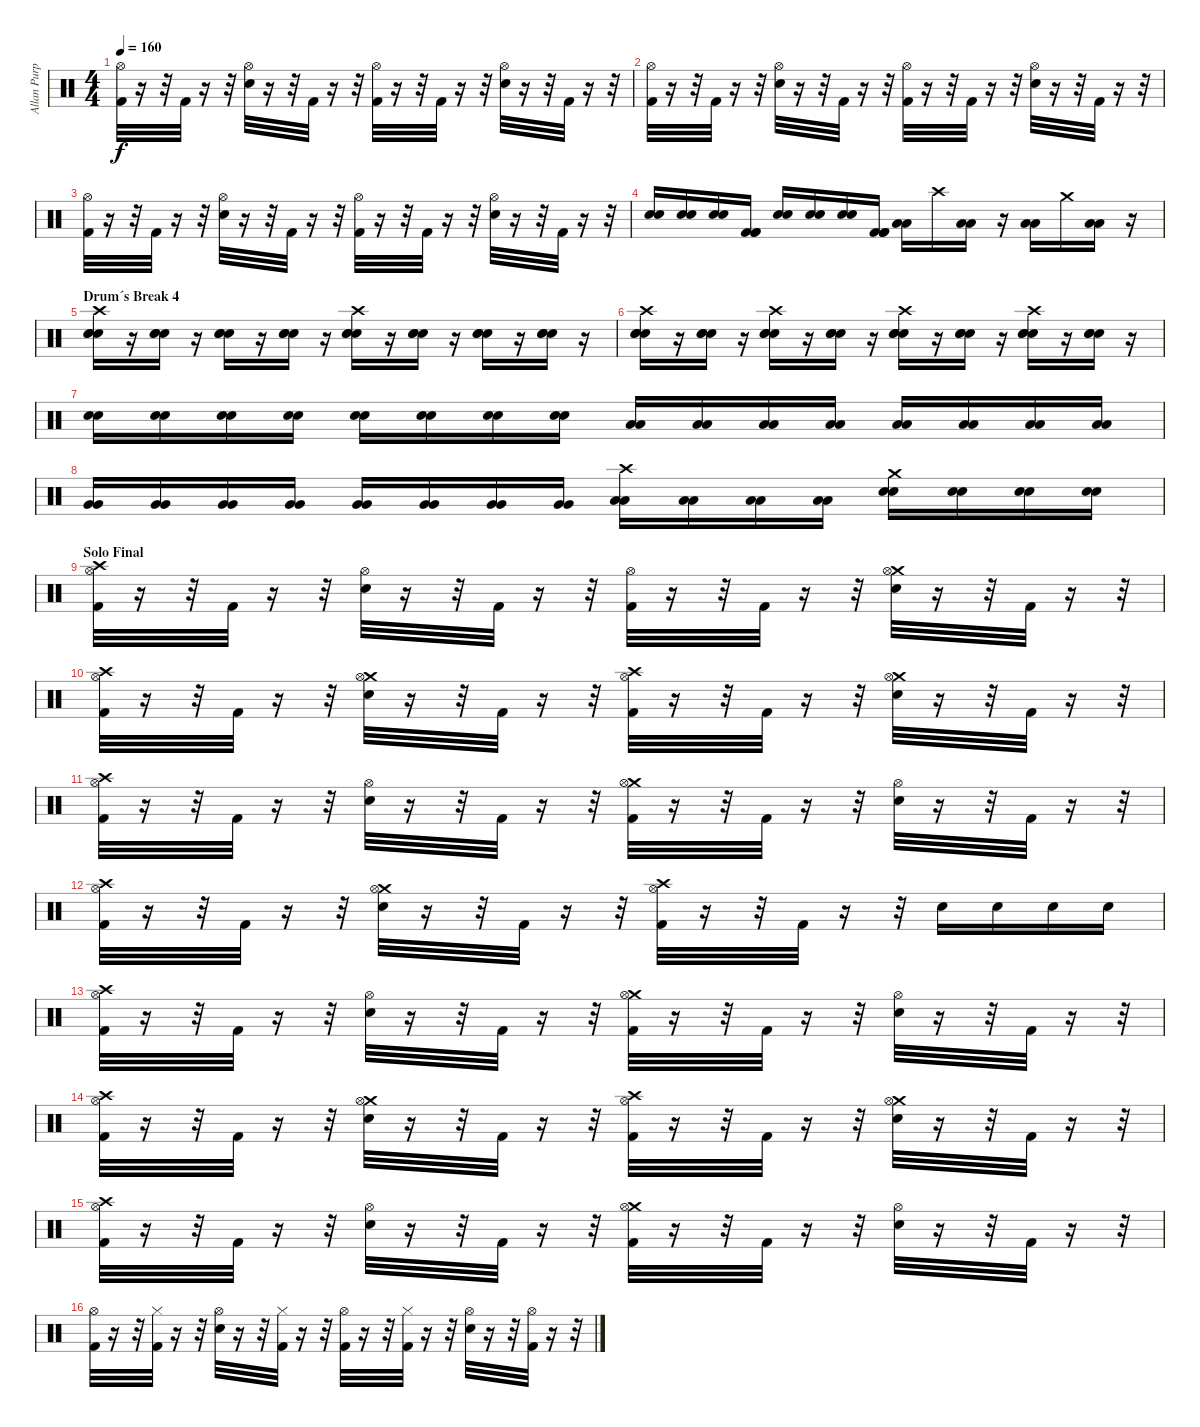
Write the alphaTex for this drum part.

\track ("Allan Purple" "Allan Purp") {instrument percussion}
\staff {score}
\articulation defaults
\ts (4 4)
\tempo 160
\clef neutral
\ks c
("Hi-Hat (open)" "Kick (hit) 2").32{dy f} r.16 r.32 "Kick (hit) 2".32 r.16 r.32 ("Hi-Hat (open)" "Electric Snare (hit)").32 r.16 r.32 "Kick (hit) 2".32 r.16 r.32 ("Hi-Hat (open)" "Kick (hit) 2").32 r.16 r.32 "Kick (hit) 2".32 r.16 r.32 ("Hi-Hat (open)" "Electric Snare (hit)").32 r.16 r.32 "Kick (hit) 2".32 r.16 r.32 |
("Hi-Hat (open)" "Kick (hit) 2").32 r.16 r.32 "Kick (hit) 2".32 r.16 r.32 ("Hi-Hat (open)" "Electric Snare (hit)").32 r.16 r.32 "Kick (hit) 2".32 r.16 r.32 ("Hi-Hat (open)" "Kick (hit) 2").32 r.16 r.32 "Kick (hit) 2".32 r.16 r.32 ("Hi-Hat (open)" "Electric Snare (hit)").32 r.16 r.32 "Kick (hit) 2".32 r.16 r.32 |
("Hi-Hat (open)" "Kick (hit) 2").32 r.16 r.32 "Kick (hit) 2".32 r.16 r.32 ("Hi-Hat (open)" "Electric Snare (hit)").32 r.16 r.32 "Kick (hit) 2".32 r.16 r.32 ("Hi-Hat (open)" "Kick (hit) 2").32 r.16 r.32 "Kick (hit) 2".32 r.16 r.32 ("Hi-Hat (open)" "Electric Snare (hit)").32 r.16 r.32 "Kick (hit) 2".32 r.16 r.32 |
("Electric Snare (hit)" "Electric Snare (hit)").16 ("Electric Snare (hit)" "Electric Snare (hit)").16 ("Electric Snare (hit)" "Electric Snare (hit)").16 ("Kick (hit) 2" "Kick (hit) 2" "Kick (hit) 2").16 ("Electric Snare (hit)" "Electric Snare (hit)").16 ("Electric Snare (hit)" "Electric Snare (hit)").16 ("Electric Snare (hit)" "Electric Snare (hit)").16 ("Kick (hit) 2" "Kick (hit) 2" "Kick (hit) 2").16 ("Low Tom (hit)" "Low Tom (hit)").16 "Crash high (hit)".16 ("Low Tom (hit)" "Low Tom (hit)").16 r.16 ("Low Tom (hit)" "Low Tom (hit)").16 "Crash medium (hit)".16 ("Low Tom (hit)" "Low Tom (hit)").16 r.16 |
\section ("" "Drum´s Break 4")
("Crash high (hit)" "Electric Snare (hit)" "Electric Snare (hit)" "Electric Snare (hit)").16 r.16 ("Electric Snare (hit)" "Electric Snare (hit)" "Electric Snare (hit)").16 r.16 ("Electric Snare (hit)" "Electric Snare (hit)" "Electric Snare (hit)").16 r.16 ("Electric Snare (hit)" "Electric Snare (hit)" "Electric Snare (hit)").16 r.16 ("Crash high (hit)" "Electric Snare (hit)" "Electric Snare (hit)" "Electric Snare (hit)").16 r.16 ("Electric Snare (hit)" "Electric Snare (hit)" "Electric Snare (hit)").16 r.16 ("Electric Snare (hit)" "Electric Snare (hit)" "Electric Snare (hit)").16 r.16 ("Electric Snare (hit)" "Electric Snare (hit)" "Electric Snare (hit)").16 r.16 |
("Crash high (hit)" "Electric Snare (hit)" "Electric Snare (hit)" "Electric Snare (hit)").16 r.16 ("Electric Snare (hit)" "Electric Snare (hit)" "Electric Snare (hit)").16 r.16 ("Crash high (hit)" "Electric Snare (hit)" "Electric Snare (hit)" "Electric Snare (hit)").16 r.16 ("Electric Snare (hit)" "Electric Snare (hit)" "Electric Snare (hit)").16 r.16 ("Crash high (hit)" "Electric Snare (hit)" "Electric Snare (hit)" "Electric Snare (hit)").16 r.16 ("Electric Snare (hit)" "Electric Snare (hit)" "Electric Snare (hit)").16 r.16 ("Crash high (hit)" "Electric Snare (hit)" "Electric Snare (hit)" "Electric Snare (hit)").16 r.16 ("Electric Snare (hit)" "Electric Snare (hit)" "Electric Snare (hit)").16 r.16 |
("Electric Snare (hit)" "Electric Snare (hit)").16 ("Electric Snare (hit)" "Electric Snare (hit)").16 ("Electric Snare (hit)" "Electric Snare (hit)").16 ("Electric Snare (hit)" "Electric Snare (hit)").16 ("Electric Snare (hit)" "Electric Snare (hit)").16 ("Electric Snare (hit)" "Electric Snare (hit)").16 ("Electric Snare (hit)" "Electric Snare (hit)").16 ("Electric Snare (hit)" "Electric Snare (hit)").16 ("Low Tom (hit)" "Low Tom (hit)").16 ("Low Tom (hit)" "Low Tom (hit)").16 ("Low Tom (hit)" "Low Tom (hit)").16 ("Low Tom (hit)" "Low Tom (hit)").16 ("Low Tom (hit)" "Low Tom (hit)").16 ("Low Tom (hit)" "Low Tom (hit)").16 ("Low Tom (hit)" "Low Tom (hit)").16 ("Low Tom (hit)" "Low Tom (hit)").16 |
("Very Low Tom (hit)" "Very Low Tom (hit)").16 ("Very Low Tom (hit)" "Very Low Tom (hit)").16 ("Very Low Tom (hit)" "Very Low Tom (hit)").16 ("Very Low Tom (hit)" "Very Low Tom (hit)").16 ("Very Low Tom (hit)" "Very Low Tom (hit)").16 ("Very Low Tom (hit)" "Very Low Tom (hit)").16 ("Very Low Tom (hit)" "Very Low Tom (hit)").16 ("Very Low Tom (hit)" "Very Low Tom (hit)").16 ("Crash high (hit)" "Low Tom (hit)" "Low Tom (hit)").16 ("Low Tom (hit)" "Low Tom (hit)").16 ("Low Tom (hit)" "Low Tom (hit)").16 ("Low Tom (hit)" "Low Tom (hit)").16 ("Crash medium (hit)" "Electric Snare (hit)" "Electric Snare (hit)").16 ("Electric Snare (hit)" "Electric Snare (hit)").16 ("Electric Snare (hit)" "Electric Snare (hit)").16 ("Electric Snare (hit)" "Electric Snare (hit)").16 |
\section ("" "Solo Final")
("Crash high (hit)" "Hi-Hat (open)" "Kick (hit) 2").32 r.16 r.32 "Kick (hit) 2".32 r.16 r.32 ("Hi-Hat (open)" "Electric Snare (hit)").32 r.16 r.32 "Kick (hit) 2".32 r.16 r.32 ("Hi-Hat (open)" "Kick (hit) 2").32 r.16 r.32 "Kick (hit) 2".32 r.16 r.32 ("Crash medium (hit)" "Hi-Hat (open)" "Electric Snare (hit)").32 r.16 r.32 "Kick (hit) 2".32 r.16 r.32 |
("Crash high (hit)" "Hi-Hat (open)" "Kick (hit) 2").32 r.16 r.32 "Kick (hit) 2".32 r.16 r.32 ("Crash medium (hit)" "Hi-Hat (open)" "Electric Snare (hit)").32 r.16 r.32 "Kick (hit) 2".32 r.16 r.32 ("Crash high (hit)" "Hi-Hat (open)" "Kick (hit) 2").32 r.16 r.32 "Kick (hit) 2".32 r.16 r.32 ("Crash medium (hit)" "Hi-Hat (open)" "Electric Snare (hit)").32 r.16 r.32 "Kick (hit) 2".32 r.16 r.32 |
("Crash high (hit)" "Hi-Hat (open)" "Kick (hit) 2").32 r.16 r.32 "Kick (hit) 2".32 r.16 r.32 ("Hi-Hat (open)" "Electric Snare (hit)").32 r.16 r.32 "Kick (hit) 2".32 r.16 r.32 ("Crash medium (hit)" "Hi-Hat (open)" "Kick (hit) 2").32 r.16 r.32 "Kick (hit) 2".32 r.16 r.32 ("Hi-Hat (open)" "Electric Snare (hit)").32 r.16 r.32 "Kick (hit) 2".32 r.16 r.32 |
("Crash high (hit)" "Hi-Hat (open)" "Kick (hit) 2").32 r.16 r.32 "Kick (hit) 2".32 r.16 r.32 ("Crash medium (hit)" "Hi-Hat (open)" "Electric Snare (hit)").32 r.16 r.32 "Kick (hit) 2".32 r.16 r.32 ("Crash high (hit)" "Hi-Hat (open)" "Kick (hit) 2").32 r.16 r.32 "Kick (hit) 2".32 r.16 r.32 "Electric Snare (hit)".16 "Electric Snare (hit)".16 "Electric Snare (hit)".16 "Electric Snare (hit)".16 |
("Crash high (hit)" "Hi-Hat (open)" "Kick (hit) 2").32 r.16 r.32 "Kick (hit) 2".32 r.16 r.32 ("Hi-Hat (open)" "Electric Snare (hit)").32 r.16 r.32 "Kick (hit) 2".32 r.16 r.32 ("Crash medium (hit)" "Hi-Hat (open)" "Kick (hit) 2").32 r.16 r.32 "Kick (hit) 2".32 r.16 r.32 ("Hi-Hat (open)" "Electric Snare (hit)").32 r.16 r.32 "Kick (hit) 2".32 r.16 r.32 |
("Crash high (hit)" "Hi-Hat (open)" "Kick (hit) 2").32 r.16 r.32 "Kick (hit) 2".32 r.16 r.32 ("Crash medium (hit)" "Hi-Hat (open)" "Electric Snare (hit)").32 r.16 r.32 "Kick (hit) 2".32 r.16 r.32 ("Crash high (hit)" "Hi-Hat (open)" "Kick (hit) 2").32 r.16 r.32 "Kick (hit) 2".32 r.16 r.32 ("Crash medium (hit)" "Hi-Hat (open)" "Electric Snare (hit)").32 r.16 r.32 "Kick (hit) 2".32 r.16 r.32 |
("Crash high (hit)" "Hi-Hat (open)" "Kick (hit) 2").32 r.16 r.32 "Kick (hit) 2".32 r.16 r.32 ("Hi-Hat (open)" "Electric Snare (hit)").32 r.16 r.32 "Kick (hit) 2".32 r.16 r.32 ("Crash medium (hit)" "Hi-Hat (open)" "Kick (hit) 2").32 r.16 r.32 "Kick (hit) 2".32 r.16 r.32 ("Hi-Hat (open)" "Electric Snare (hit)").32 r.16 r.32 "Kick (hit) 2".32 r.16 r.32 |
("Hi-Hat (open)" "Kick (hit) 2").32 r.16 r.32 ("Hi-Hat (closed)" "Kick (hit) 2").32 r.16 r.32 ("Hi-Hat (open)" "Electric Snare (hit)").32 r.16 r.32 ("Hi-Hat (closed)" "Kick (hit) 2").32 r.16 r.32 ("Hi-Hat (open)" "Kick (hit) 2").32 r.16 r.32 ("Hi-Hat (closed)" "Kick (hit) 2").32 r.16 r.32 ("Hi-Hat (open)" "Electric Snare (hit)").32 r.16 r.32 ("Hi-Hat (open)" "Kick (hit) 2").32 r.16 r.32
